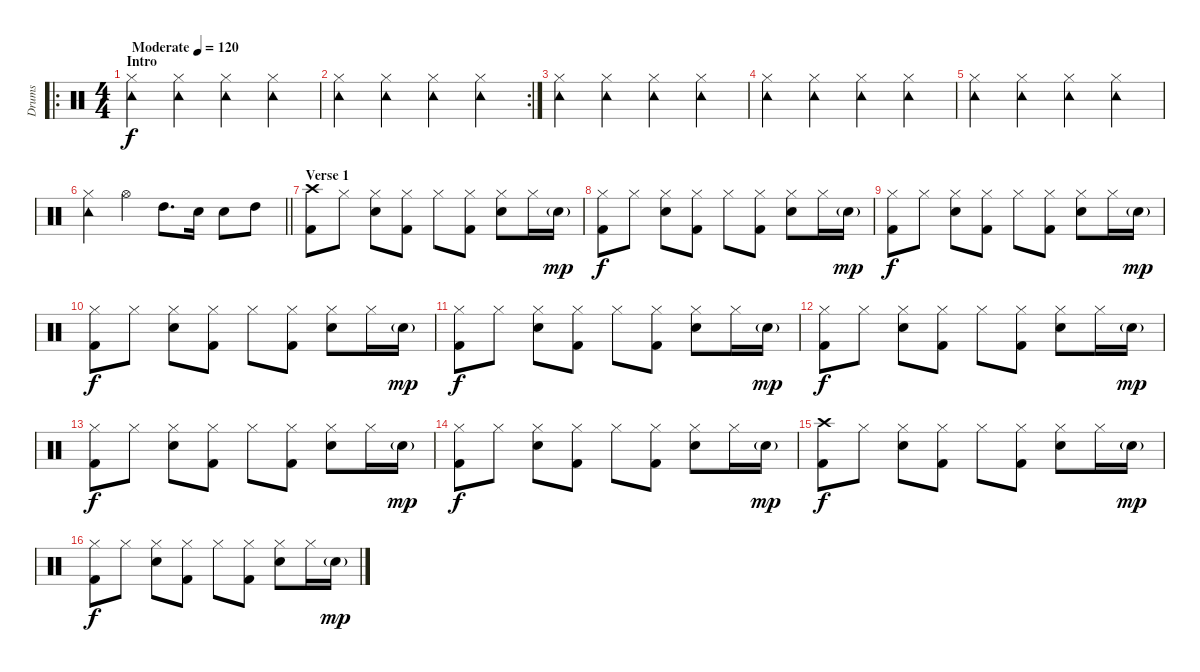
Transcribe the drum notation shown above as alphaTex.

\track ("Drums" "Drums") {instrument percussion}
\staff {score}
\articulation defaults
\ro
\ts (4 4)
\section ("" "Intro")
\tempo (120 "Moderate")
\clef neutral
\ks c
("Hi-Hat (closed)" "Tambourine (hit)").4{dy f} ("Hi-Hat (closed)" "Tambourine (hit)").4 ("Hi-Hat (closed)" "Tambourine (hit)").4 ("Hi-Hat (closed)" "Tambourine (hit)").4 |
\rc 2
("Hi-Hat (closed)" "Tambourine (hit)").4 ("Hi-Hat (closed)" "Tambourine (hit)").4 ("Hi-Hat (closed)" "Tambourine (hit)").4 ("Hi-Hat (closed)" "Tambourine (hit)").4 |
("Hi-Hat (closed)" "Tambourine (hit)").4 ("Hi-Hat (closed)" "Tambourine (hit)").4 ("Hi-Hat (closed)" "Tambourine (hit)").4 ("Hi-Hat (closed)" "Tambourine (hit)").4 |
("Hi-Hat (closed)" "Tambourine (hit)").4 ("Hi-Hat (closed)" "Tambourine (hit)").4 ("Hi-Hat (closed)" "Tambourine (hit)").4 ("Hi-Hat (closed)" "Tambourine (hit)").4 |
("Hi-Hat (closed)" "Tambourine (hit)").4 ("Hi-Hat (closed)" "Tambourine (hit)").4 ("Hi-Hat (closed)" "Tambourine (hit)").4 ("Hi-Hat (closed)" "Tambourine (hit)").4 |
\barLineRight lightlight
("Hi-Hat (closed)" "Tambourine (hit)").4 "Hi-Hat (open)".4 "High Tom (hit)".8{d} "Electric Snare (hit)".16 "Electric Snare (hit)".8 "High Tom (hit)".8 |
\section ("" "Verse 1")
("Kick (hit) 2" "Crash high (hit)").8 "Hi-Hat (closed)".8 ("Electric Snare (hit)" "Hi-Hat (closed)").8 ("Kick (hit) 2" "Hi-Hat (closed)").8 "Hi-Hat (closed)".8 ("Kick (hit) 2" "Hi-Hat (closed)").8 ("Electric Snare (hit)" "Hi-Hat (closed)").8 "Hi-Hat (closed)".16 "Electric Snare (hit)"{g}.16{dy mp} |
("Kick (hit) 2" "Hi-Hat (closed)").8{dy f} "Hi-Hat (closed)".8 ("Electric Snare (hit)" "Hi-Hat (closed)").8 ("Kick (hit) 2" "Hi-Hat (closed)").8 "Hi-Hat (closed)".8 ("Kick (hit) 2" "Hi-Hat (closed)").8 ("Electric Snare (hit)" "Hi-Hat (closed)").8 "Hi-Hat (closed)".16 "Electric Snare (hit)"{g}.16{dy mp} |
("Kick (hit) 2" "Hi-Hat (closed)").8{dy f} "Hi-Hat (closed)".8 ("Electric Snare (hit)" "Hi-Hat (closed)").8 ("Kick (hit) 2" "Hi-Hat (closed)").8 "Hi-Hat (closed)".8 ("Kick (hit) 2" "Hi-Hat (closed)").8 ("Electric Snare (hit)" "Hi-Hat (closed)").8 "Hi-Hat (closed)".16 "Electric Snare (hit)"{g}.16{dy mp} |
("Kick (hit) 2" "Hi-Hat (closed)").8{dy f} "Hi-Hat (closed)".8 ("Electric Snare (hit)" "Hi-Hat (closed)").8 ("Kick (hit) 2" "Hi-Hat (closed)").8 "Hi-Hat (closed)".8 ("Kick (hit) 2" "Hi-Hat (closed)").8 ("Electric Snare (hit)" "Hi-Hat (closed)").8 "Hi-Hat (closed)".16 "Electric Snare (hit)"{g}.16{dy mp} |
("Kick (hit) 2" "Hi-Hat (closed)").8{dy f} "Hi-Hat (closed)".8 ("Electric Snare (hit)" "Hi-Hat (closed)").8 ("Kick (hit) 2" "Hi-Hat (closed)").8 "Hi-Hat (closed)".8 ("Kick (hit) 2" "Hi-Hat (closed)").8 ("Electric Snare (hit)" "Hi-Hat (closed)").8 "Hi-Hat (closed)".16 "Electric Snare (hit)"{g}.16{dy mp} |
("Kick (hit) 2" "Hi-Hat (closed)").8{dy f} "Hi-Hat (closed)".8 ("Electric Snare (hit)" "Hi-Hat (closed)").8 ("Kick (hit) 2" "Hi-Hat (closed)").8 "Hi-Hat (closed)".8 ("Kick (hit) 2" "Hi-Hat (closed)").8 ("Electric Snare (hit)" "Hi-Hat (closed)").8 "Hi-Hat (closed)".16 "Electric Snare (hit)"{g}.16{dy mp} |
("Kick (hit) 2" "Hi-Hat (closed)").8{dy f} "Hi-Hat (closed)".8 ("Electric Snare (hit)" "Hi-Hat (closed)").8 ("Kick (hit) 2" "Hi-Hat (closed)").8 "Hi-Hat (closed)".8 ("Kick (hit) 2" "Hi-Hat (closed)").8 ("Electric Snare (hit)" "Hi-Hat (closed)").8 "Hi-Hat (closed)".16 "Electric Snare (hit)"{g}.16{dy mp} |
("Kick (hit) 2" "Hi-Hat (closed)").8{dy f} "Hi-Hat (closed)".8 ("Electric Snare (hit)" "Hi-Hat (closed)").8 ("Kick (hit) 2" "Hi-Hat (closed)").8 "Hi-Hat (closed)".8 ("Kick (hit) 2" "Hi-Hat (closed)").8 ("Electric Snare (hit)" "Hi-Hat (closed)").8 "Hi-Hat (closed)".16 "Electric Snare (hit)"{g}.16{dy mp} |
("Kick (hit) 2" "Crash high (hit)").8{dy f} "Hi-Hat (closed)".8 ("Electric Snare (hit)" "Hi-Hat (closed)").8 ("Kick (hit) 2" "Hi-Hat (closed)").8 "Hi-Hat (closed)".8 ("Kick (hit) 2" "Hi-Hat (closed)").8 ("Electric Snare (hit)" "Hi-Hat (closed)").8 "Hi-Hat (closed)".16 "Electric Snare (hit)"{g}.16{dy mp} |
("Kick (hit) 2" "Hi-Hat (closed)").8{dy f} "Hi-Hat (closed)".8 ("Electric Snare (hit)" "Hi-Hat (closed)").8 ("Kick (hit) 2" "Hi-Hat (closed)").8 "Hi-Hat (closed)".8 ("Kick (hit) 2" "Hi-Hat (closed)").8 ("Electric Snare (hit)" "Hi-Hat (closed)").8 "Hi-Hat (closed)".16 "Electric Snare (hit)"{g}.16{dy mp}
